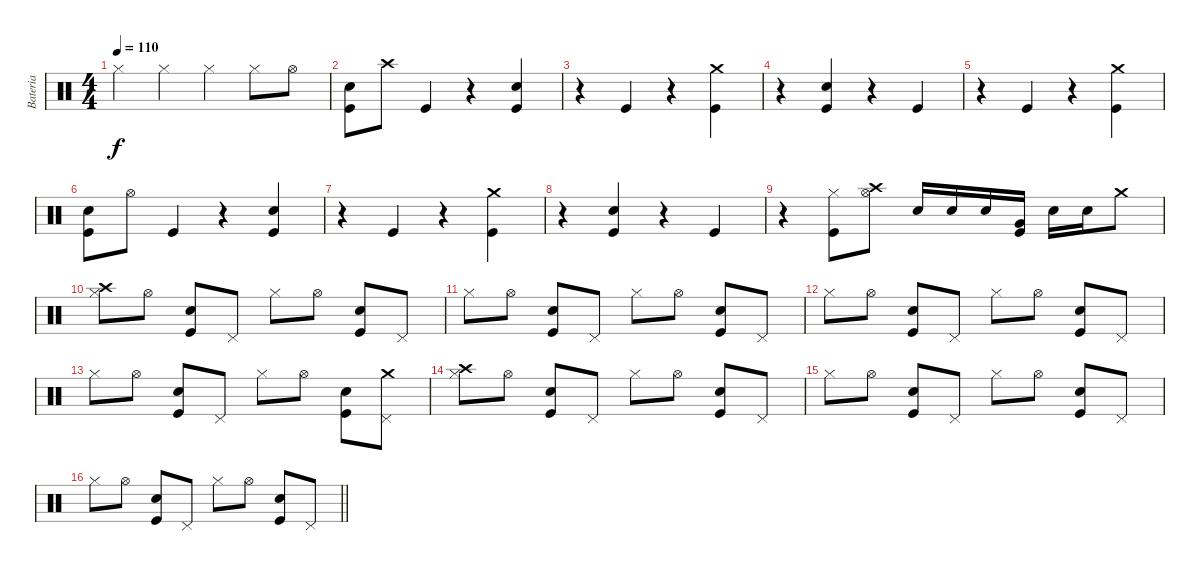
\track ("Bateria" "Bateria") {instrument percussion}
\staff {score}
\articulation defaults
\ts (4 4)
\tempo 110
\clef neutral
\ks c "Hi-Hat (closed)".4{dy f} "Hi-Hat (closed)".4 "Hi-Hat (closed)".4 "Hi-Hat (closed)".8 "Hi-Hat (open)".8
|
("Electric Snare (hit)" "Kick (hit)").8 "Crash high (hit)".8 "Kick (hit)".4 r.4 ("Electric Snare (hit)" "Kick (hit)").4 |
r.4 "Kick (hit)".4 r.4 ("Crash medium (hit)" "Kick (hit)").4 |
r.4 ("Electric Snare (hit)" "Kick (hit)").4 r.4 "Kick (hit)".4 |
r.4 "Kick (hit)".4 r.4 ("Crash medium (hit)" "Kick (hit)").4 |
("Electric Snare (hit)" "Kick (hit)").8 "Hi-Hat (open)".8 "Kick (hit)".4 r.4 ("Electric Snare (hit)" "Kick (hit)").4 |
r.4 "Kick (hit)".4 r.4 ("Crash medium (hit)" "Kick (hit)").4 |
r.4 ("Electric Snare (hit)" "Kick (hit)").4 r.4 "Kick (hit)".4 |
r.4 ("Hi-Hat (closed)" "Kick (hit)").8 ("Crash high (hit)" "Hi-Hat (open)").8 "Snare (hit) 2".16 "Electric Snare (hit)".16 "Electric Snare (hit)".16 ("Very Low Tom (hit)" "Kick (hit)").16 "Electric Snare (hit)".16 "Electric Snare (hit)".16 "Crash medium (hit)".8 |
("Crash high (hit)" "Hi-Hat (closed)").8 "Hi-Hat (open)".8 ("Electric Snare (hit)" "Kick (hit)").8 "Pedal Hi-Hat (hit)".8 "Hi-Hat (closed)".8 "Hi-Hat (open)".8 ("Electric Snare (hit)" "Kick (hit)").8 "Pedal Hi-Hat (hit)".8 |
"Hi-Hat (closed)".8 "Hi-Hat (open)".8 ("Electric Snare (hit)" "Kick (hit)").8 "Pedal Hi-Hat (hit)".8 "Hi-Hat (closed)".8 "Hi-Hat (open)".8 ("Electric Snare (hit)" "Kick (hit)").8 "Pedal Hi-Hat (hit)".8 |
"Hi-Hat (closed)".8 "Hi-Hat (open)".8 ("Electric Snare (hit)" "Kick (hit)").8 "Pedal Hi-Hat (hit)".8 "Hi-Hat (closed)".8 "Hi-Hat (open)".8 ("Electric Snare (hit)" "Kick (hit)").8 "Pedal Hi-Hat (hit)".8 |
"Hi-Hat (closed)".8 "Hi-Hat (open)".8 ("Electric Snare (hit)" "Kick (hit)").8 "Pedal Hi-Hat (hit)".8 "Hi-Hat (closed)".8 "Hi-Hat (open)".8 ("Electric Snare (hit)" "Kick (hit)").8 ("Crash medium (hit)" "Pedal Hi-Hat (hit)").8 |
("Crash high (hit)" "Hi-Hat (closed)").8 "Hi-Hat (open)".8 ("Electric Snare (hit)" "Kick (hit)").8 "Pedal Hi-Hat (hit)".8 "Hi-Hat (closed)".8 "Hi-Hat (open)".8 ("Electric Snare (hit)" "Kick (hit)").8 "Pedal Hi-Hat (hit)".8 |
"Hi-Hat (closed)".8 "Hi-Hat (open)".8 ("Electric Snare (hit)" "Kick (hit)").8 "Pedal Hi-Hat (hit)".8 "Hi-Hat (closed)".8 "Hi-Hat (open)".8 ("Electric Snare (hit)" "Kick (hit)").8 "Pedal Hi-Hat (hit)".8 |
\barLineRight lightlight "Hi-Hat (closed)".8 "Hi-Hat (open)".8
("Electric Snare (hit)" "Kick (hit)").8 "Pedal Hi-Hat (hit)".8 "Hi-Hat (closed)".8 "Hi-Hat (open)".8 ("Electric Snare (hit)" "Kick (hit)").8 "Pedal Hi-Hat (hit)".8
